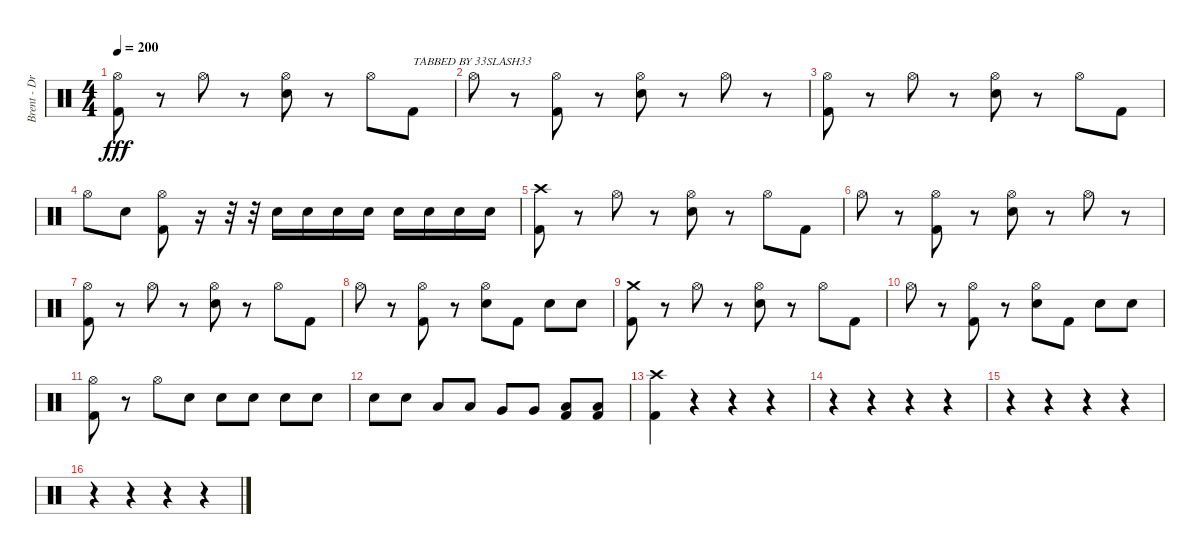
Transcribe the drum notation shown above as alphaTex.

\track ("Brent - Drums" "Brent - Dr") {instrument percussion}
\staff {score}
\articulation defaults
\ts (4 4)
\tempo 200
\clef neutral
\ks c
("Hi-Hat (open)" "Kick (hit) 2").8{dy fff} r.8 "Hi-Hat (open)".8 r.8 ("Hi-Hat (open)" "Snare (hit) 2").8 r.8 "Hi-Hat (open)".8 "Kick (hit) 2".8{txt "TABBED BY 33SLASH33"} |
"Hi-Hat (open)".8 r.8 ("Hi-Hat (open)" "Kick (hit) 2").8 r.8 ("Hi-Hat (open)" "Snare (hit) 2").8 r.8 "Hi-Hat (open)".8 r.8 |
("Hi-Hat (open)" "Kick (hit) 2").8 r.8 "Hi-Hat (open)".8 r.8 ("Hi-Hat (open)" "Snare (hit) 2").8 r.8 "Hi-Hat (open)".8 "Kick (hit) 2".8 |
"Hi-Hat (open)".8 "Snare (hit) 2".8 ("Hi-Hat (open)" "Kick (hit) 2").8 r.16 r.32 r.32 "Snare (hit) 2".16 "Snare (hit) 2".16 "Snare (hit) 2".16 "Snare (hit) 2".16 "Snare (hit) 2".16 "Snare (hit) 2".16 "Snare (hit) 2".16 "Snare (hit) 2".16 |
("Crash high (hit)" "Kick (hit) 2").8 r.8 "Hi-Hat (open)".8 r.8 ("Hi-Hat (open)" "Snare (hit) 2").8 r.8 "Hi-Hat (open)".8 "Kick (hit) 2".8 |
"Hi-Hat (open)".8 r.8 ("Hi-Hat (open)" "Kick (hit) 2").8 r.8 ("Hi-Hat (open)" "Snare (hit) 2").8 r.8 "Hi-Hat (open)".8 r.8 |
("Hi-Hat (open)" "Kick (hit) 2").8 r.8 "Hi-Hat (open)".8 r.8 ("Hi-Hat (open)" "Snare (hit) 2").8 r.8 "Hi-Hat (open)".8 "Kick (hit) 2".8 |
"Hi-Hat (open)".8 r.8 ("Hi-Hat (open)" "Kick (hit) 2").8 r.8 ("Hi-Hat (open)" "Snare (hit) 2").8 "Kick (hit) 2".8 "Snare (hit) 2".8 "Snare (hit) 2".8 |
("Crash medium (hit)" "Kick (hit) 2").8 r.8 "Hi-Hat (open)".8 r.8 ("Hi-Hat (open)" "Snare (hit) 2").8 r.8 "Hi-Hat (open)".8 "Kick (hit) 2".8 |
"Hi-Hat (open)".8 r.8 ("Hi-Hat (open)" "Kick (hit) 2").8 r.8 ("Hi-Hat (open)" "Snare (hit) 2").8 "Kick (hit) 2".8 "Snare (hit) 2".8 "Snare (hit) 2".8 |
("Hi-Hat (open)" "Kick (hit) 2").8 r.8 "Hi-Hat (open)".8 "Snare (hit) 2".8 "Snare (hit) 2".8 "Snare (hit) 2".8 "Snare (hit) 2".8 "Snare (hit) 2".8 |
"Snare (hit) 2".8 "Snare (hit) 2".8 "Low Tom (hit)".8 "Low Tom (hit)".8 "Very Low Tom (hit)".8 "Very Low Tom (hit)".8 ("Low Floor Tom (hit)" "Kick (hit) 2").8 ("Low Floor Tom (hit)" "Kick (hit) 2").8 |
("Crash high (hit)" "Kick (hit) 2").4 r.4 r.4 r.4 |
r.4 r.4 r.4 r.4 |
r.4 r.4 r.4 r.4 |
r.4 r.4 r.4 r.4
